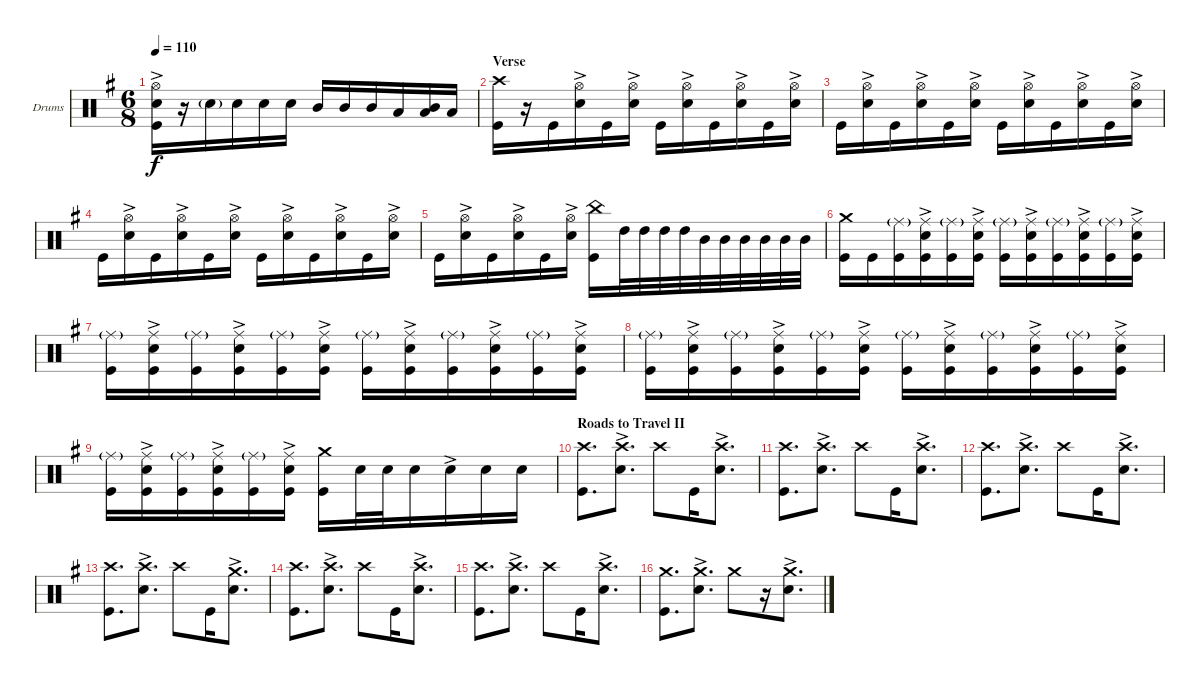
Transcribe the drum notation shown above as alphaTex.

\bracketExtendMode groupsimilarinstruments
\firstSystemTrackNameOrientation horizontal
\otherSystemsTrackNameOrientation horizontal
\track ("Drumkit" "Drums") {instrument percussion}
\staff {score}
\articulation defaults
\ts (6 8)
\tempo 110
\clef neutral
\ks eminor
("Kick (hit)" "Snare (hit) 2"{ac} "Hi-Hat (open)").16{dy f} r.16 "Snare (hit) 2"{g}.16 "Snare (hit) 2".16 "Snare (hit) 2".16 "Snare (hit) 2".16 "Mid Tom (hit)".16 "Mid Tom (hit)".16 "Mid Tom (hit)".16 "Low Tom (hit)".16 ("Mid Tom (hit)" "Low Tom (hit)").16 "Low Tom (hit)".16 |
\section ("" "Verse")
("Kick (hit)" "Crash high (hit)").16 r.16 "Kick (hit)".16 ("Snare (hit) 2"{ac} "Hi-Hat (open)").16 "Kick (hit)".16 ("Snare (hit) 2"{ac} "Hi-Hat (open)").16 "Kick (hit)".16 ("Snare (hit) 2"{ac} "Hi-Hat (open)").16 "Kick (hit)".16 ("Snare (hit) 2"{ac} "Hi-Hat (open)").16 "Kick (hit)".16 ("Snare (hit) 2"{ac} "Hi-Hat (open)").16 |
"Kick (hit)".16 ("Snare (hit) 2"{ac} "Hi-Hat (open)").16 "Kick (hit)".16 ("Snare (hit) 2"{ac} "Hi-Hat (open)").16 "Kick (hit)".16 ("Snare (hit) 2"{ac} "Hi-Hat (open)").16 "Kick (hit)".16 ("Snare (hit) 2"{ac} "Hi-Hat (open)").16 "Kick (hit)".16 ("Snare (hit) 2"{ac} "Hi-Hat (open)").16 "Kick (hit)".16 ("Snare (hit) 2"{ac} "Hi-Hat (open)").16 |
"Kick (hit)".16 ("Snare (hit) 2"{ac} "Hi-Hat (open)").16 "Kick (hit)".16 ("Snare (hit) 2"{ac} "Hi-Hat (open)").16 "Kick (hit)".16 ("Snare (hit) 2"{ac} "Hi-Hat (open)").16 "Kick (hit)".16 ("Snare (hit) 2"{ac} "Hi-Hat (open)").16 "Kick (hit)".16 ("Snare (hit) 2"{ac} "Hi-Hat (open)").16 "Kick (hit)".16 ("Snare (hit) 2"{ac} "Hi-Hat (open)").16 |
"Kick (hit)".16 ("Snare (hit) 2"{ac} "Hi-Hat (open)").16 "Kick (hit)".16 ("Snare (hit) 2"{ac} "Hi-Hat (open)").16 "Kick (hit)".16 ("Snare (hit) 2"{ac} "Hi-Hat (open)").16 ("Kick (hit)" "China (hit)").16 "High Tom (hit)".32 "High Tom (hit)".32 "High Tom (hit)".32 "High Tom (hit)".32 "Mid Tom (hit)".32 "Mid Tom (hit)".32 "Mid Tom (hit)".32 "Mid Tom (hit)".32 "Mid Tom (hit)".32 "Mid Tom (hit)".32 |
("Kick (hit)" "Crash medium (hit)").16 "Kick (hit)".16 ("Kick (hit)" "Ride (middle)"{g}).16 ("Kick (hit)" "Snare (hit) 2"{ac} "Ride (middle)").16 ("Kick (hit)" "Ride (middle)"{g}).16 ("Kick (hit)" "Snare (hit) 2"{ac} "Ride (middle)").16 ("Kick (hit)" "Ride (middle)"{g}).16 ("Kick (hit)" "Snare (hit) 2"{ac} "Ride (middle)").16 ("Kick (hit)" "Ride (middle)"{g}).16 ("Kick (hit)" "Snare (hit) 2"{ac} "Ride (middle)").16 ("Kick (hit)" "Ride (middle)"{g}).16 ("Kick (hit)" "Snare (hit) 2"{ac} "Ride (middle)").16 |
("Kick (hit)" "Ride (middle)"{g}).16 ("Kick (hit)" "Snare (hit) 2"{ac} "Ride (middle)").16 ("Kick (hit)" "Ride (middle)"{g}).16 ("Kick (hit)" "Snare (hit) 2"{ac} "Ride (middle)").16 ("Kick (hit)" "Ride (middle)"{g}).16 ("Kick (hit)" "Snare (hit) 2"{ac} "Ride (middle)").16 ("Kick (hit)" "Ride (middle)"{g}).16 ("Kick (hit)" "Snare (hit) 2"{ac} "Ride (middle)").16 ("Kick (hit)" "Ride (middle)"{g}).16 ("Kick (hit)" "Snare (hit) 2"{ac} "Ride (middle)").16 ("Kick (hit)" "Ride (middle)"{g}).16 ("Kick (hit)" "Snare (hit) 2"{ac} "Ride (middle)").16 |
("Kick (hit)" "Ride (middle)"{g}).16 ("Kick (hit)" "Snare (hit) 2"{ac} "Ride (middle)").16 ("Kick (hit)" "Ride (middle)"{g}).16 ("Kick (hit)" "Snare (hit) 2"{ac} "Ride (middle)").16 ("Kick (hit)" "Ride (middle)"{g}).16 ("Kick (hit)" "Snare (hit) 2"{ac} "Ride (middle)").16 ("Kick (hit)" "Ride (middle)"{g}).16 ("Kick (hit)" "Snare (hit) 2"{ac} "Ride (middle)").16 ("Kick (hit)" "Ride (middle)"{g}).16 ("Kick (hit)" "Snare (hit) 2"{ac} "Ride (middle)").16 ("Kick (hit)" "Ride (middle)"{g}).16 ("Kick (hit)" "Snare (hit) 2"{ac} "Ride (middle)").16 |
("Kick (hit)" "Ride (middle)"{g}).16 ("Kick (hit)" "Snare (hit) 2"{ac} "Ride (middle)").16 ("Kick (hit)" "Ride (middle)"{g}).16 ("Kick (hit)" "Snare (hit) 2"{ac} "Ride (middle)").16 ("Kick (hit)" "Ride (middle)"{g}).16 ("Kick (hit)" "Snare (hit) 2"{ac} "Ride (middle)").16 ("Kick (hit)" "Crash medium (hit)").16 "Snare (hit) 2".32 "Snare (hit) 2".32 "Snare (hit) 2".16 "Snare (hit) 2"{ac}.16 "Snare (hit) 2".16 "Snare (hit) 2".16 |
\section ("" "Roads to Travel II")
("Kick (hit)" "Crash high (hit)").8{d} ("Snare (hit) 2"{ac} "Crash high (hit)").8{d} "Crash high (hit)".8 "Kick (hit)".16 ("Snare (hit) 2"{ac} "Crash high (hit)").8{d} |
("Kick (hit)" "Crash high (hit)").8{d} ("Snare (hit) 2"{ac} "Crash high (hit)").8{d} "Crash high (hit)".8 "Kick (hit)".16 ("Snare (hit) 2"{ac} "Crash high (hit)").8{d} |
("Kick (hit)" "Crash high (hit)").8{d} ("Snare (hit) 2"{ac} "Crash high (hit)").8{d} "Crash high (hit)".8 "Kick (hit)".16 ("Snare (hit) 2"{ac} "Crash high (hit)").8{d} |
("Kick (hit)" "Crash high (hit)").8{d} ("Snare (hit) 2"{ac} "Crash high (hit)").8{d} "Crash high (hit)".8 "Kick (hit)".16 ("Snare (hit) 2"{ac} "Crash medium (hit)").8{d} |
("Kick (hit)" "Crash high (hit)").8{d} ("Snare (hit) 2"{ac} "Crash high (hit)").8{d} "Crash high (hit)".8 "Kick (hit)".16 ("Snare (hit) 2"{ac} "Crash high (hit)").8{d} |
("Kick (hit)" "Crash high (hit)").8{d} ("Snare (hit) 2"{ac} "Crash high (hit)").8{d} "Crash high (hit)".8 "Kick (hit)".16 ("Snare (hit) 2"{ac} "Crash high (hit)").8{d} |
("Kick (hit)" "Crash medium (hit)").8{d} ("Snare (hit) 2"{ac} "Crash medium (hit)").8{d} "Crash medium (hit)".8 r.16 ("Snare (hit) 2"{ac} "Crash medium (hit)").8{d}
